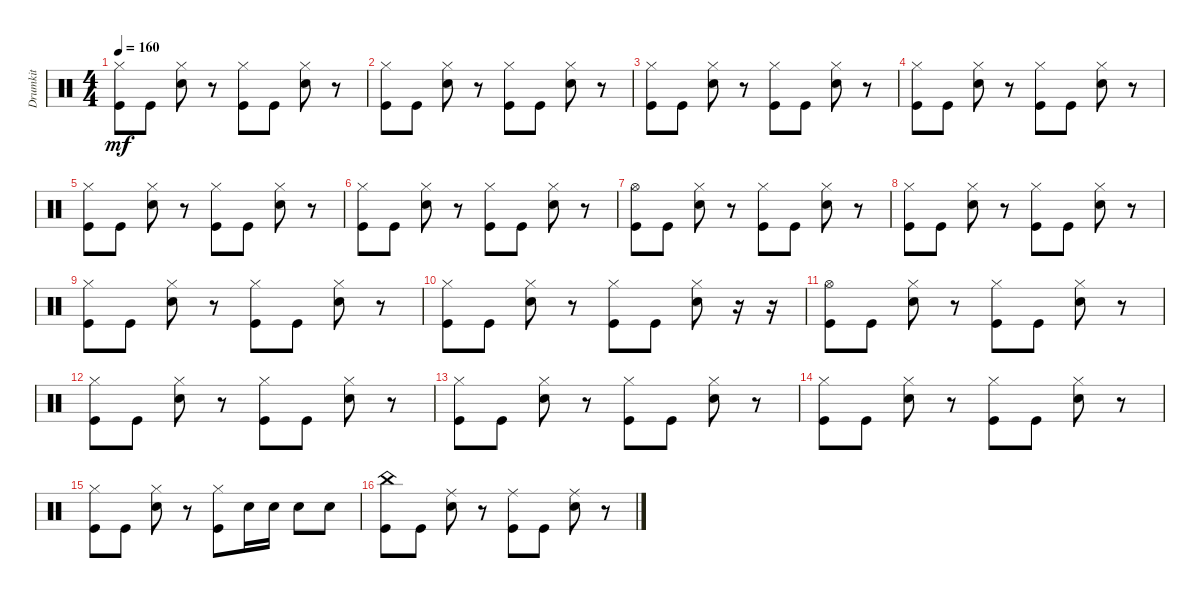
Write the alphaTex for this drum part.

\track ("Drumkit" "Drumkit") {instrument percussion}
\staff {score}
\articulation defaults
\ts (4 4)
\tempo 160
\clef neutral
\ks c
("Kick (hit)" "Hi-Hat (closed)").8{dy mf} "Kick (hit)".8 ("Snare (hit) 2" "Hi-Hat (closed)").8 r.8 ("Kick (hit)" "Hi-Hat (closed)").8 "Kick (hit)".8 ("Snare (hit) 2" "Hi-Hat (closed)").8 r.8 |
("Kick (hit)" "Hi-Hat (closed)").8 "Kick (hit)".8 ("Snare (hit) 2" "Hi-Hat (closed)").8 r.8 ("Kick (hit)" "Hi-Hat (closed)").8 "Kick (hit)".8 ("Snare (hit) 2" "Hi-Hat (closed)").8 r.8 |
("Kick (hit)" "Hi-Hat (closed)").8 "Kick (hit)".8 ("Snare (hit) 2" "Hi-Hat (closed)").8 r.8 ("Kick (hit)" "Hi-Hat (closed)").8 "Kick (hit)".8 ("Snare (hit) 2" "Hi-Hat (closed)").8 r.8 |
("Kick (hit)" "Hi-Hat (closed)").8 "Kick (hit)".8 ("Snare (hit) 2" "Hi-Hat (closed)").8 r.8 ("Kick (hit)" "Hi-Hat (closed)").8 "Kick (hit)".8 ("Snare (hit) 2" "Hi-Hat (closed)").8 r.8 |
("Kick (hit)" "Hi-Hat (closed)").8 "Kick (hit)".8 ("Snare (hit) 2" "Hi-Hat (closed)").8 r.8 ("Kick (hit)" "Hi-Hat (closed)").8 "Kick (hit)".8 ("Snare (hit) 2" "Hi-Hat (closed)").8 r.8 |
("Kick (hit)" "Hi-Hat (closed)").8 "Kick (hit)".8 ("Snare (hit) 2" "Hi-Hat (closed)").8 r.8 ("Kick (hit)" "Hi-Hat (closed)").8 "Kick (hit)".8 ("Snare (hit) 2" "Hi-Hat (closed)").8 r.8 |
("Kick (hit)" "Hi-Hat (open)").8 "Kick (hit)".8 ("Snare (hit) 2" "Hi-Hat (closed)").8 r.8 ("Kick (hit)" "Hi-Hat (closed)").8 "Kick (hit)".8 ("Snare (hit) 2" "Hi-Hat (closed)").8 r.8 |
("Kick (hit)" "Hi-Hat (closed)").8 "Kick (hit)".8 ("Snare (hit) 2" "Hi-Hat (closed)").8 r.8 ("Kick (hit)" "Hi-Hat (closed)").8 "Kick (hit)".8 ("Snare (hit) 2" "Hi-Hat (closed)").8 r.8 |
("Kick (hit)" "Hi-Hat (closed)").8 "Kick (hit)".8 ("Snare (hit) 2" "Hi-Hat (closed)").8 r.8 ("Kick (hit)" "Hi-Hat (closed)").8 "Kick (hit)".8 ("Snare (hit) 2" "Hi-Hat (closed)").8 r.8 |
("Kick (hit)" "Hi-Hat (closed)").8 "Kick (hit)".8 ("Snare (hit) 2" "Hi-Hat (closed)").8 r.8 ("Kick (hit)" "Hi-Hat (closed)").8 "Kick (hit)".8 ("Snare (hit) 2" "Hi-Hat (closed)").8 r.16 r.16 |
("Kick (hit)" "Hi-Hat (open)").8 "Kick (hit)".8 ("Snare (hit) 2" "Hi-Hat (closed)").8 r.8 ("Kick (hit)" "Hi-Hat (closed)").8 "Kick (hit)".8 ("Snare (hit) 2" "Hi-Hat (closed)").8 r.8 |
("Kick (hit)" "Hi-Hat (closed)").8 "Kick (hit)".8 ("Snare (hit) 2" "Hi-Hat (closed)").8 r.8 ("Kick (hit)" "Hi-Hat (closed)").8 "Kick (hit)".8 ("Snare (hit) 2" "Hi-Hat (closed)").8 r.8 |
("Kick (hit)" "Hi-Hat (closed)").8 "Kick (hit)".8 ("Snare (hit) 2" "Hi-Hat (closed)").8 r.8 ("Kick (hit)" "Hi-Hat (closed)").8 "Kick (hit)".8 ("Snare (hit) 2" "Hi-Hat (closed)").8 r.8 |
("Kick (hit)" "Hi-Hat (closed)").8 "Kick (hit)".8 ("Snare (hit) 2" "Hi-Hat (closed)").8 r.8 ("Kick (hit)" "Hi-Hat (closed)").8 "Kick (hit)".8 ("Snare (hit) 2" "Hi-Hat (closed)").8 r.8 |
("Kick (hit)" "Hi-Hat (closed)").8 "Kick (hit)".8 ("Snare (hit) 2" "Hi-Hat (closed)").8 r.8 ("Kick (hit)" "Hi-Hat (closed)").8 "Snare (hit) 2".16 "Snare (hit) 2".16 "Snare (hit) 2".8 "Snare (hit) 2".8 |
("Kick (hit)" "China (hit)").8 "Kick (hit)".8 ("Snare (hit) 2" "Ride (middle)").8 r.8 ("Kick (hit)" "Ride (middle)").8 "Kick (hit)".8 ("Snare (hit) 2" "Ride (middle)").8 r.8
